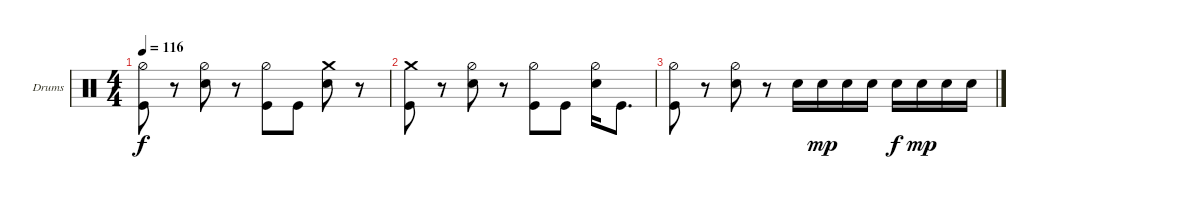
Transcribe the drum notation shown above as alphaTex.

\bracketExtendMode nobrackets
\firstSystemTrackNameOrientation horizontal
\otherSystemsTrackNameOrientation horizontal
\track ("Drumkit" "Drums") {instrument percussion}
\staff {score}
\articulation defaults
\ts (4 4)
\tempo 116
\clef neutral
\ks c
("Hi-Hat (half)" "Kick (hit)").8{dy f} r.8 ("Snare (hit) 2" "Hi-Hat (half)").8 r.8 ("Hi-Hat (half)" "Kick (hit)").8 "Kick (hit)".8 ("Snare (hit) 2" "Crash medium (hit)").8 r.8 |
("Kick (hit)" "Crash medium (hit)").8 r.8 ("Snare (hit) 2" "Hi-Hat (half)").8 r.8 ("Hi-Hat (half)" "Kick (hit)").8 "Kick (hit)".8 ("Hi-Hat (half)" "Snare (hit) 2").16 "Kick (hit)".8{d} |
("Hi-Hat (half)" "Kick (hit)").8 r.8 ("Snare (hit) 2" "Hi-Hat (half)").8 r.8 "Snare (hit) 2".16 "Snare (hit) 2".16{dy mp} "Snare (hit) 2".16 "Snare (hit) 2".16 "Snare (hit) 2".16{dy f} "Snare (hit) 2".16{dy mp} "Snare (hit) 2".16 "Snare (hit) 2".16
